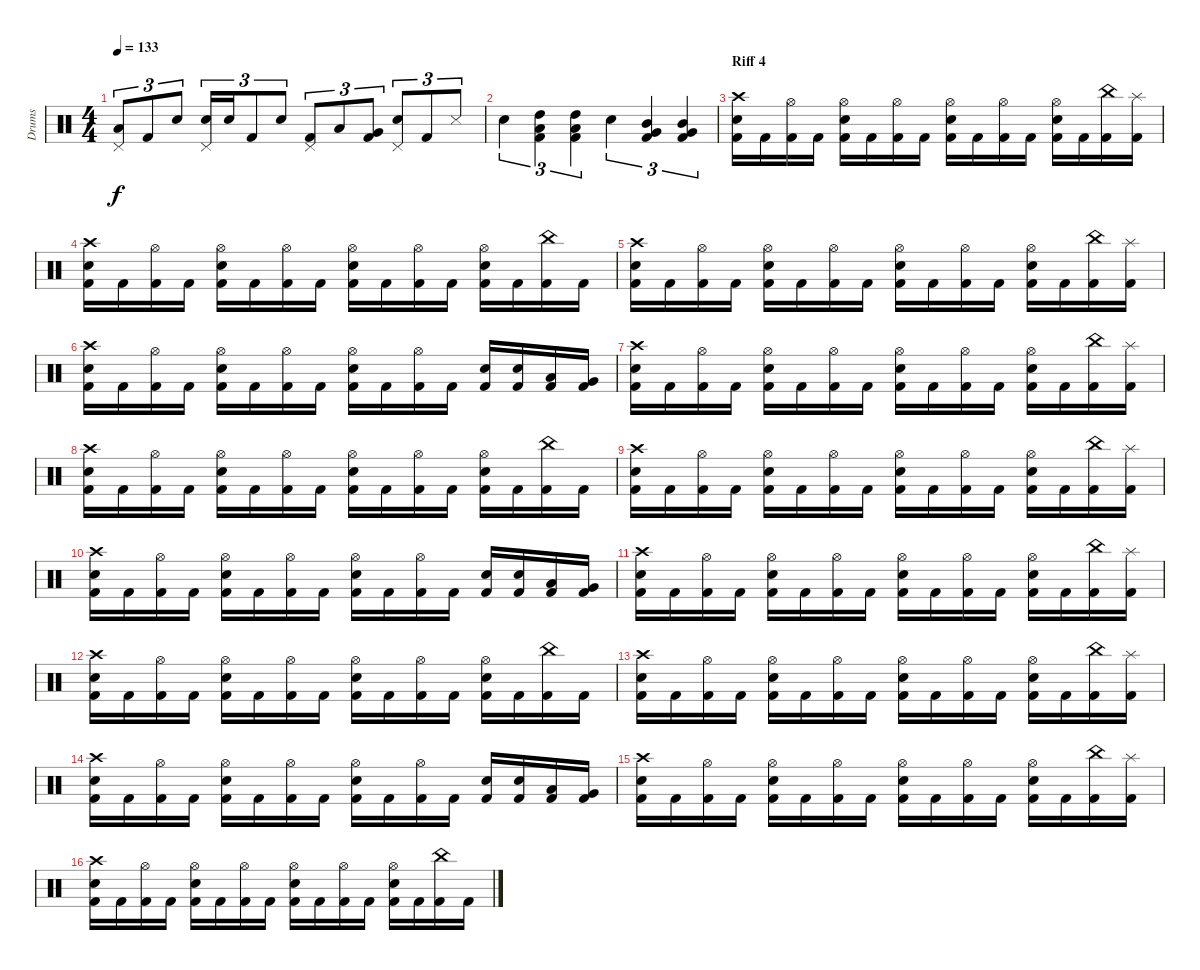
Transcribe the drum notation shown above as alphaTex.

\track ("Drums" "Drums") {instrument percussion}
\staff {score}
\articulation defaults
\ts (4 4)
\tempo 133
\clef neutral
\ks c
("Low Tom (hit)" "Pedal Hi-Hat (hit)").8{tu (3 2) dy f} "Kick (hit) 2".8{tu (3 2)} "Snare (hit) 2".8{tu (3 2)} ("Snare (hit) 2" "Pedal Hi-Hat (hit)").16{tu (3 2)} "Snare (hit) 2".16{tu (3 2)} "Kick (hit) 2".8{tu (3 2)} "Snare (hit) 2".8{tu (3 2)} ("Kick (hit) 2" "Pedal Hi-Hat (hit)").8{tu (3 2)} "Low Tom (hit)".8{tu (3 2)} ("Kick (hit) 2" "Very Low Tom (hit)").8{tu (3 2)} ("Snare (hit) 2" "Pedal Hi-Hat (hit)").8{tu (3 2)} "Kick (hit) 2".8{tu (3 2)} "Snare (side stick) 3".8{tu (3 2)} |
"Snare (hit) 2".4{tu (3 2)} ("Kick (hit) 2" "High Tom (hit)" "Low Tom (hit)").4{tu (3 2)} ("Kick (hit) 2" "High Tom (hit)" "Low Tom (hit)").4{tu (3 2)} "Snare (hit) 2".4{tu (3 2)} ("Kick (hit) 2" "Mid Tom (hit)" "Very Low Tom (hit)").4{tu (3 2)} ("Kick (hit) 2" "Mid Tom (hit)" "Very Low Tom (hit)").4{tu (3 2)} |
\section ("" "Riff 4")
("Kick (hit) 2" "Snare (hit) 2" "Crash high (hit)").16 "Kick (hit) 2".16 ("Kick (hit) 2" "Hi-Hat (open)").16 "Kick (hit) 2".16 ("Kick (hit) 2" "Snare (hit) 2" "Hi-Hat (open)").16 "Kick (hit) 2".16 ("Kick (hit) 2" "Hi-Hat (open)").16 "Kick (hit) 2".16 ("Kick (hit) 2" "Snare (hit) 2" "Hi-Hat (open)").16 "Kick (hit) 2".16 ("Kick (hit) 2" "Hi-Hat (open)").16 "Kick (hit) 2".16 ("Kick (hit) 2" "Snare (hit) 2" "Hi-Hat (open)").16 "Kick (hit) 2".16 ("Kick (hit) 2" "China (hit)").16 ("Kick (hit) 2" "Splash (hit)").16 |
("Kick (hit) 2" "Snare (hit) 2" "Crash high (hit)").16 "Kick (hit) 2".16 ("Kick (hit) 2" "Hi-Hat (open)").16 "Kick (hit) 2".16 ("Kick (hit) 2" "Snare (hit) 2" "Hi-Hat (open)").16 "Kick (hit) 2".16 ("Kick (hit) 2" "Hi-Hat (open)").16 "Kick (hit) 2".16 ("Kick (hit) 2" "Snare (hit) 2" "Hi-Hat (open)").16 "Kick (hit) 2".16 ("Kick (hit) 2" "Hi-Hat (open)").16 "Kick (hit) 2".16 ("Kick (hit) 2" "Snare (hit) 2" "Hi-Hat (open)").16 "Kick (hit) 2".16 ("Kick (hit) 2" "China (hit)").16 "Kick (hit) 2".16 |
("Kick (hit) 2" "Snare (hit) 2" "Crash high (hit)").16 "Kick (hit) 2".16 ("Kick (hit) 2" "Hi-Hat (open)").16 "Kick (hit) 2".16 ("Kick (hit) 2" "Snare (hit) 2" "Hi-Hat (open)").16 "Kick (hit) 2".16 ("Kick (hit) 2" "Hi-Hat (open)").16 "Kick (hit) 2".16 ("Kick (hit) 2" "Snare (hit) 2" "Hi-Hat (open)").16 "Kick (hit) 2".16 ("Kick (hit) 2" "Hi-Hat (open)").16 "Kick (hit) 2".16 ("Kick (hit) 2" "Snare (hit) 2" "Hi-Hat (open)").16 "Kick (hit) 2".16 ("Kick (hit) 2" "China (hit)").16 ("Kick (hit) 2" "Splash (hit)").16 |
("Kick (hit) 2" "Snare (hit) 2" "Crash high (hit)").16 "Kick (hit) 2".16 ("Kick (hit) 2" "Hi-Hat (open)").16 "Kick (hit) 2".16 ("Kick (hit) 2" "Snare (hit) 2" "Hi-Hat (open)").16 "Kick (hit) 2".16 ("Kick (hit) 2" "Hi-Hat (open)").16 "Kick (hit) 2".16 ("Kick (hit) 2" "Snare (hit) 2" "Hi-Hat (open)").16 "Kick (hit) 2".16 ("Kick (hit) 2" "Hi-Hat (open)").16 "Kick (hit) 2".16 ("Kick (hit) 2" "Snare (hit) 2").16 ("Kick (hit) 2" "Snare (hit) 2").16 ("Kick (hit) 2" "Low Tom (hit)").16 ("Kick (hit) 2" "Very Low Tom (hit)").16 |
("Kick (hit) 2" "Snare (hit) 2" "Crash high (hit)").16 "Kick (hit) 2".16 ("Kick (hit) 2" "Hi-Hat (open)").16 "Kick (hit) 2".16 ("Kick (hit) 2" "Snare (hit) 2" "Hi-Hat (open)").16 "Kick (hit) 2".16 ("Kick (hit) 2" "Hi-Hat (open)").16 "Kick (hit) 2".16 ("Kick (hit) 2" "Snare (hit) 2" "Hi-Hat (open)").16 "Kick (hit) 2".16 ("Kick (hit) 2" "Hi-Hat (open)").16 "Kick (hit) 2".16 ("Kick (hit) 2" "Snare (hit) 2" "Hi-Hat (open)").16 "Kick (hit) 2".16 ("Kick (hit) 2" "China (hit)").16 ("Kick (hit) 2" "Splash (hit)").16 |
("Kick (hit) 2" "Snare (hit) 2" "Crash high (hit)").16 "Kick (hit) 2".16 ("Kick (hit) 2" "Hi-Hat (open)").16 "Kick (hit) 2".16 ("Kick (hit) 2" "Snare (hit) 2" "Hi-Hat (open)").16 "Kick (hit) 2".16 ("Kick (hit) 2" "Hi-Hat (open)").16 "Kick (hit) 2".16 ("Kick (hit) 2" "Snare (hit) 2" "Hi-Hat (open)").16 "Kick (hit) 2".16 ("Kick (hit) 2" "Hi-Hat (open)").16 "Kick (hit) 2".16 ("Kick (hit) 2" "Snare (hit) 2" "Hi-Hat (open)").16 "Kick (hit) 2".16 ("Kick (hit) 2" "China (hit)").16 "Kick (hit) 2".16 |
("Kick (hit) 2" "Snare (hit) 2" "Crash high (hit)").16 "Kick (hit) 2".16 ("Kick (hit) 2" "Hi-Hat (open)").16 "Kick (hit) 2".16 ("Kick (hit) 2" "Snare (hit) 2" "Hi-Hat (open)").16 "Kick (hit) 2".16 ("Kick (hit) 2" "Hi-Hat (open)").16 "Kick (hit) 2".16 ("Kick (hit) 2" "Snare (hit) 2" "Hi-Hat (open)").16 "Kick (hit) 2".16 ("Kick (hit) 2" "Hi-Hat (open)").16 "Kick (hit) 2".16 ("Kick (hit) 2" "Snare (hit) 2" "Hi-Hat (open)").16 "Kick (hit) 2".16 ("Kick (hit) 2" "China (hit)").16 ("Kick (hit) 2" "Splash (hit)").16 |
("Kick (hit) 2" "Snare (hit) 2" "Crash high (hit)").16 "Kick (hit) 2".16 ("Kick (hit) 2" "Hi-Hat (open)").16 "Kick (hit) 2".16 ("Kick (hit) 2" "Snare (hit) 2" "Hi-Hat (open)").16 "Kick (hit) 2".16 ("Kick (hit) 2" "Hi-Hat (open)").16 "Kick (hit) 2".16 ("Kick (hit) 2" "Snare (hit) 2" "Hi-Hat (open)").16 "Kick (hit) 2".16 ("Kick (hit) 2" "Hi-Hat (open)").16 "Kick (hit) 2".16 ("Kick (hit) 2" "Snare (hit) 2").16 ("Kick (hit) 2" "Snare (hit) 2").16 ("Kick (hit) 2" "Low Tom (hit)").16 ("Kick (hit) 2" "Very Low Tom (hit)").16 |
("Kick (hit) 2" "Snare (hit) 2" "Crash high (hit)").16 "Kick (hit) 2".16 ("Kick (hit) 2" "Hi-Hat (open)").16 "Kick (hit) 2".16 ("Kick (hit) 2" "Snare (hit) 2" "Hi-Hat (open)").16 "Kick (hit) 2".16 ("Kick (hit) 2" "Hi-Hat (open)").16 "Kick (hit) 2".16 ("Kick (hit) 2" "Snare (hit) 2" "Hi-Hat (open)").16 "Kick (hit) 2".16 ("Kick (hit) 2" "Hi-Hat (open)").16 "Kick (hit) 2".16 ("Kick (hit) 2" "Snare (hit) 2" "Hi-Hat (open)").16 "Kick (hit) 2".16 ("Kick (hit) 2" "China (hit)").16 ("Kick (hit) 2" "Splash (hit)").16 |
("Kick (hit) 2" "Snare (hit) 2" "Crash high (hit)").16 "Kick (hit) 2".16 ("Kick (hit) 2" "Hi-Hat (open)").16 "Kick (hit) 2".16 ("Kick (hit) 2" "Snare (hit) 2" "Hi-Hat (open)").16 "Kick (hit) 2".16 ("Kick (hit) 2" "Hi-Hat (open)").16 "Kick (hit) 2".16 ("Kick (hit) 2" "Snare (hit) 2" "Hi-Hat (open)").16 "Kick (hit) 2".16 ("Kick (hit) 2" "Hi-Hat (open)").16 "Kick (hit) 2".16 ("Kick (hit) 2" "Snare (hit) 2" "Hi-Hat (open)").16 "Kick (hit) 2".16 ("Kick (hit) 2" "China (hit)").16 "Kick (hit) 2".16 |
("Kick (hit) 2" "Snare (hit) 2" "Crash high (hit)").16 "Kick (hit) 2".16 ("Kick (hit) 2" "Hi-Hat (open)").16 "Kick (hit) 2".16 ("Kick (hit) 2" "Snare (hit) 2" "Hi-Hat (open)").16 "Kick (hit) 2".16 ("Kick (hit) 2" "Hi-Hat (open)").16 "Kick (hit) 2".16 ("Kick (hit) 2" "Snare (hit) 2" "Hi-Hat (open)").16 "Kick (hit) 2".16 ("Kick (hit) 2" "Hi-Hat (open)").16 "Kick (hit) 2".16 ("Kick (hit) 2" "Snare (hit) 2" "Hi-Hat (open)").16 "Kick (hit) 2".16 ("Kick (hit) 2" "China (hit)").16 ("Kick (hit) 2" "Splash (hit)").16 |
("Kick (hit) 2" "Snare (hit) 2" "Crash high (hit)").16 "Kick (hit) 2".16 ("Kick (hit) 2" "Hi-Hat (open)").16 "Kick (hit) 2".16 ("Kick (hit) 2" "Snare (hit) 2" "Hi-Hat (open)").16 "Kick (hit) 2".16 ("Kick (hit) 2" "Hi-Hat (open)").16 "Kick (hit) 2".16 ("Kick (hit) 2" "Snare (hit) 2" "Hi-Hat (open)").16 "Kick (hit) 2".16 ("Kick (hit) 2" "Hi-Hat (open)").16 "Kick (hit) 2".16 ("Kick (hit) 2" "Snare (hit) 2").16 ("Kick (hit) 2" "Snare (hit) 2").16 ("Kick (hit) 2" "Low Tom (hit)").16 ("Kick (hit) 2" "Very Low Tom (hit)").16 |
("Kick (hit) 2" "Snare (hit) 2" "Crash high (hit)").16 "Kick (hit) 2".16 ("Kick (hit) 2" "Hi-Hat (open)").16 "Kick (hit) 2".16 ("Kick (hit) 2" "Snare (hit) 2" "Hi-Hat (open)").16 "Kick (hit) 2".16 ("Kick (hit) 2" "Hi-Hat (open)").16 "Kick (hit) 2".16 ("Kick (hit) 2" "Snare (hit) 2" "Hi-Hat (open)").16 "Kick (hit) 2".16 ("Kick (hit) 2" "Hi-Hat (open)").16 "Kick (hit) 2".16 ("Kick (hit) 2" "Snare (hit) 2" "Hi-Hat (open)").16 "Kick (hit) 2".16 ("Kick (hit) 2" "China (hit)").16 ("Kick (hit) 2" "Splash (hit)").16 |
("Kick (hit) 2" "Snare (hit) 2" "Crash high (hit)").16 "Kick (hit) 2".16 ("Kick (hit) 2" "Hi-Hat (open)").16 "Kick (hit) 2".16 ("Kick (hit) 2" "Snare (hit) 2" "Hi-Hat (open)").16 "Kick (hit) 2".16 ("Kick (hit) 2" "Hi-Hat (open)").16 "Kick (hit) 2".16 ("Kick (hit) 2" "Snare (hit) 2" "Hi-Hat (open)").16 "Kick (hit) 2".16 ("Kick (hit) 2" "Hi-Hat (open)").16 "Kick (hit) 2".16 ("Kick (hit) 2" "Snare (hit) 2" "Hi-Hat (open)").16 "Kick (hit) 2".16 ("Kick (hit) 2" "China (hit)").16 "Kick (hit) 2".16
